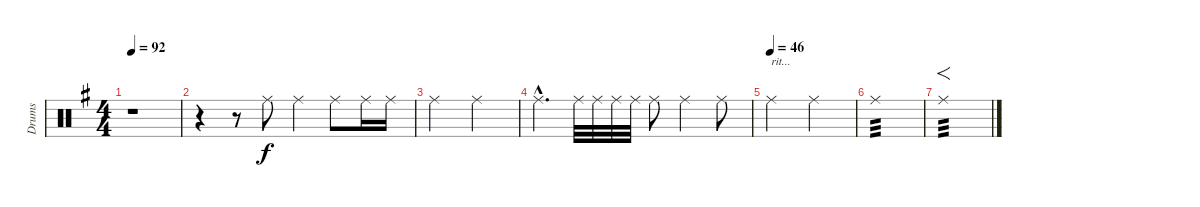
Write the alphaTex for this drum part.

\track ("Drums" "Drums") {instrument percussion}
\staff {score}
\articulation defaults
\ts (4 4)
\tempo 92
\clef neutral
\ks g
r.1{dy f} |
r.4 r.8 "Ride (middle)".8 "Ride (middle)".4 "Ride (middle)".8 "Ride (middle)".16 "Ride (middle)".16 |
"Ride (middle)".2 "Ride (middle)".2 |
"Ride (middle)"{hac}.4{d} "Ride (middle)".32 "Ride (middle)".32 "Ride (middle)".32 "Ride (middle)".32 "Ride (middle)".8 "Ride (middle)".4 "Ride (middle)".8 |
\tempo (46)
"Ride (middle)".2{txt "rit..."} "Ride (middle)".2 |
"Ride (middle)".1{tp 3} |
"Ride (middle)".1{f tp 3}
